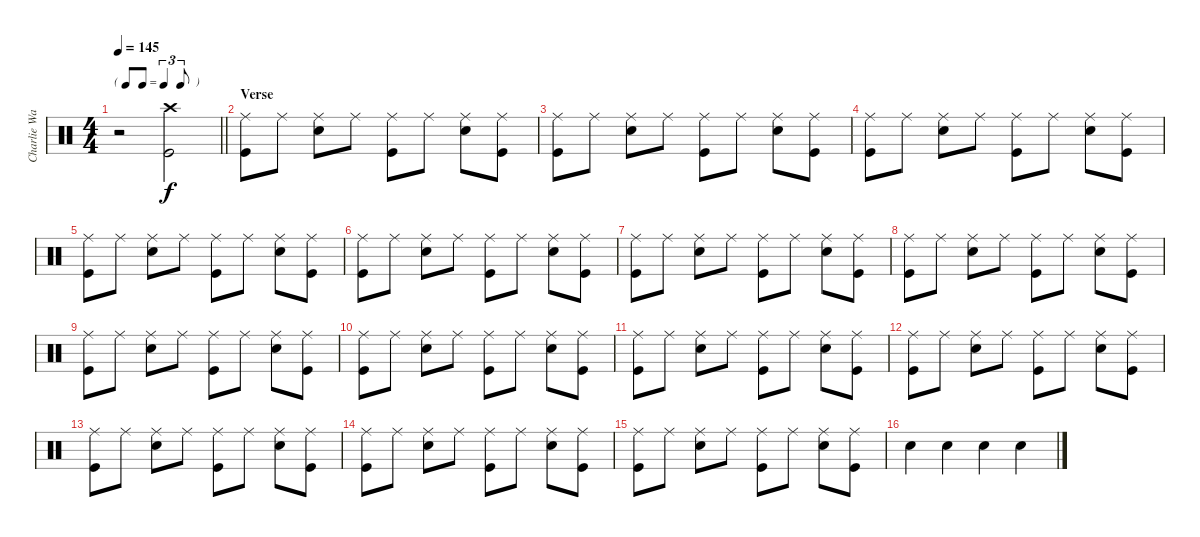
\track ("Charlie Watts" "Charlie Wa") {instrument percussion}
\staff {score}
\articulation defaults
\ts (4 4)
\tf triplet8th
\tempo 145
\clef neutral
\barLineRight lightlight
\ks c
r.2{dy f} ("Crash high (hit)" "Kick (hit)").2 |
\section ("" "Verse")
("Ride (middle)" "Kick (hit)").8 "Ride (middle)".8 ("Ride (middle)" "Snare (hit) 2").8 "Ride (middle)".8 ("Ride (middle)" "Kick (hit)").8 "Ride (middle)".8 ("Ride (middle)" "Snare (hit) 2").8 ("Ride (middle)" "Kick (hit)").8 |
("Ride (middle)" "Kick (hit)").8 "Ride (middle)".8 ("Ride (middle)" "Snare (hit) 2").8 "Ride (middle)".8 ("Ride (middle)" "Kick (hit)").8 "Ride (middle)".8 ("Ride (middle)" "Snare (hit) 2").8 ("Ride (middle)" "Kick (hit)").8 |
("Ride (middle)" "Kick (hit)").8 "Ride (middle)".8 ("Ride (middle)" "Snare (hit) 2").8 "Ride (middle)".8 ("Ride (middle)" "Kick (hit)").8 "Ride (middle)".8 ("Ride (middle)" "Snare (hit) 2").8 ("Ride (middle)" "Kick (hit)").8 |
("Ride (middle)" "Kick (hit)").8 "Ride (middle)".8 ("Ride (middle)" "Snare (hit) 2").8 "Ride (middle)".8 ("Ride (middle)" "Kick (hit)").8 "Ride (middle)".8 ("Ride (middle)" "Snare (hit) 2").8 ("Ride (middle)" "Kick (hit)").8 |
("Ride (middle)" "Kick (hit)").8 "Ride (middle)".8 ("Ride (middle)" "Snare (hit) 2").8 "Ride (middle)".8 ("Ride (middle)" "Kick (hit)").8 "Ride (middle)".8 ("Ride (middle)" "Snare (hit) 2").8 ("Ride (middle)" "Kick (hit)").8 |
("Ride (middle)" "Kick (hit)").8 "Ride (middle)".8 ("Ride (middle)" "Snare (hit) 2").8 "Ride (middle)".8 ("Ride (middle)" "Kick (hit)").8 "Ride (middle)".8 ("Ride (middle)" "Snare (hit) 2").8 ("Ride (middle)" "Kick (hit)").8 |
("Ride (middle)" "Kick (hit)").8 "Ride (middle)".8 ("Ride (middle)" "Snare (hit) 2").8 "Ride (middle)".8 ("Ride (middle)" "Kick (hit)").8 "Ride (middle)".8 ("Ride (middle)" "Snare (hit) 2").8 ("Ride (middle)" "Kick (hit)").8 |
("Ride (middle)" "Kick (hit)").8 "Ride (middle)".8 ("Ride (middle)" "Snare (hit) 2").8 "Ride (middle)".8 ("Ride (middle)" "Kick (hit)").8 "Ride (middle)".8 ("Ride (middle)" "Snare (hit) 2").8 ("Ride (middle)" "Kick (hit)").8 |
("Ride (middle)" "Kick (hit)").8 "Ride (middle)".8 ("Ride (middle)" "Snare (hit) 2").8 "Ride (middle)".8 ("Ride (middle)" "Kick (hit)").8 "Ride (middle)".8 ("Ride (middle)" "Snare (hit) 2").8 ("Ride (middle)" "Kick (hit)").8 |
("Ride (middle)" "Kick (hit)").8 "Ride (middle)".8 ("Ride (middle)" "Snare (hit) 2").8 "Ride (middle)".8 ("Ride (middle)" "Kick (hit)").8 "Ride (middle)".8 ("Ride (middle)" "Snare (hit) 2").8 ("Ride (middle)" "Kick (hit)").8 |
("Ride (middle)" "Kick (hit)").8 "Ride (middle)".8 ("Ride (middle)" "Snare (hit) 2").8 "Ride (middle)".8 ("Ride (middle)" "Kick (hit)").8 "Ride (middle)".8 ("Ride (middle)" "Snare (hit) 2").8 ("Ride (middle)" "Kick (hit)").8 |
("Ride (middle)" "Kick (hit)").8 "Ride (middle)".8 ("Ride (middle)" "Snare (hit) 2").8 "Ride (middle)".8 ("Ride (middle)" "Kick (hit)").8 "Ride (middle)".8 ("Ride (middle)" "Snare (hit) 2").8 ("Ride (middle)" "Kick (hit)").8 |
("Ride (middle)" "Kick (hit)").8 "Ride (middle)".8 ("Ride (middle)" "Snare (hit) 2").8 "Ride (middle)".8 ("Ride (middle)" "Kick (hit)").8 "Ride (middle)".8 ("Ride (middle)" "Snare (hit) 2").8 ("Ride (middle)" "Kick (hit)").8 |
("Ride (middle)" "Kick (hit)").8 "Ride (middle)".8 ("Ride (middle)" "Snare (hit) 2").8 "Ride (middle)".8 ("Ride (middle)" "Kick (hit)").8 "Ride (middle)".8 ("Ride (middle)" "Snare (hit) 2").8 ("Ride (middle)" "Kick (hit)").8 |
"Snare (hit) 2".4 "Snare (hit) 2".4 "Snare (hit) 2".4 "Snare (hit) 2".4
